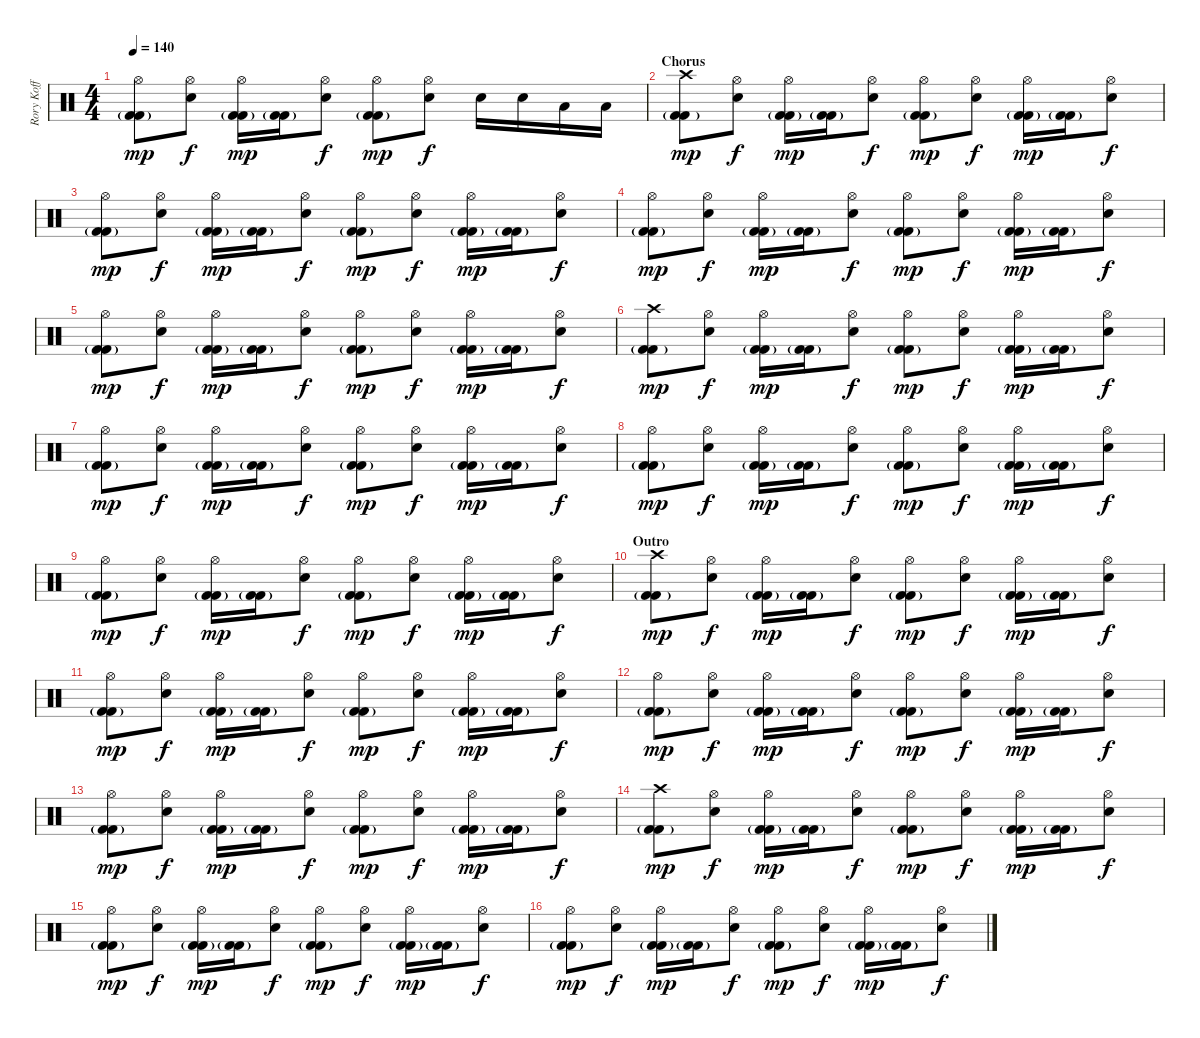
\track ("Rory Koff" "Rory Koff") {instrument percussion}
\staff {score}
\articulation defaults
\ts (4 4)
\tempo 140
\clef neutral
\ks c
("Hi-Hat (open)" "Kick (hit) 2"{g} "Kick (hit) 2").8{dy mp} ("Hi-Hat (open)" "Snare (hit) 2").8{dy f} ("Hi-Hat (open)" "Kick (hit) 2"{g} "Kick (hit) 2").16{dy mp} ("Kick (hit) 2"{g} "Kick (hit) 2").16 ("Hi-Hat (open)" "Snare (hit) 2").8{dy f} ("Hi-Hat (open)" "Kick (hit) 2"{g} "Kick (hit) 2").8{dy mp} ("Hi-Hat (open)" "Snare (hit) 2").8{dy f} "Snare (hit) 2".16 "Snare (hit) 2".16 "Low Tom (hit)".16 "Low Tom (hit)".16 |
\section ("" "Chorus")
("Crash high (hit)" "Kick (hit) 2"{g} "Kick (hit) 2").8{dy mp} ("Hi-Hat (open)" "Snare (hit) 2").8{dy f} ("Hi-Hat (open)" "Kick (hit) 2"{g} "Kick (hit) 2").16{dy mp} ("Kick (hit) 2"{g} "Kick (hit) 2").16 ("Hi-Hat (open)" "Snare (hit) 2").8{dy f} ("Hi-Hat (open)" "Kick (hit) 2"{g} "Kick (hit) 2").8{dy mp} ("Hi-Hat (open)" "Snare (hit) 2").8{dy f} ("Hi-Hat (open)" "Kick (hit) 2"{g} "Kick (hit) 2").16{dy mp} ("Kick (hit) 2"{g} "Kick (hit) 2").16 ("Hi-Hat (open)" "Snare (hit) 2").8{dy f} |
("Hi-Hat (open)" "Kick (hit) 2"{g} "Kick (hit) 2").8{dy mp} ("Hi-Hat (open)" "Snare (hit) 2").8{dy f} ("Hi-Hat (open)" "Kick (hit) 2"{g} "Kick (hit) 2").16{dy mp} ("Kick (hit) 2"{g} "Kick (hit) 2").16 ("Hi-Hat (open)" "Snare (hit) 2").8{dy f} ("Hi-Hat (open)" "Kick (hit) 2"{g} "Kick (hit) 2").8{dy mp} ("Hi-Hat (open)" "Snare (hit) 2").8{dy f} ("Hi-Hat (open)" "Kick (hit) 2"{g} "Kick (hit) 2").16{dy mp} ("Kick (hit) 2"{g} "Kick (hit) 2").16 ("Hi-Hat (open)" "Snare (hit) 2").8{dy f} |
("Hi-Hat (open)" "Kick (hit) 2"{g} "Kick (hit) 2").8{dy mp} ("Hi-Hat (open)" "Snare (hit) 2").8{dy f} ("Hi-Hat (open)" "Kick (hit) 2"{g} "Kick (hit) 2").16{dy mp} ("Kick (hit) 2"{g} "Kick (hit) 2").16 ("Hi-Hat (open)" "Snare (hit) 2").8{dy f} ("Hi-Hat (open)" "Kick (hit) 2"{g} "Kick (hit) 2").8{dy mp} ("Hi-Hat (open)" "Snare (hit) 2").8{dy f} ("Hi-Hat (open)" "Kick (hit) 2"{g} "Kick (hit) 2").16{dy mp} ("Kick (hit) 2"{g} "Kick (hit) 2").16 ("Hi-Hat (open)" "Snare (hit) 2").8{dy f} |
("Hi-Hat (open)" "Kick (hit) 2"{g} "Kick (hit) 2").8{dy mp} ("Hi-Hat (open)" "Snare (hit) 2").8{dy f} ("Hi-Hat (open)" "Kick (hit) 2"{g} "Kick (hit) 2").16{dy mp} ("Kick (hit) 2"{g} "Kick (hit) 2").16 ("Hi-Hat (open)" "Snare (hit) 2").8{dy f} ("Hi-Hat (open)" "Kick (hit) 2"{g} "Kick (hit) 2").8{dy mp} ("Hi-Hat (open)" "Snare (hit) 2").8{dy f} ("Hi-Hat (open)" "Kick (hit) 2"{g} "Kick (hit) 2").16{dy mp} ("Kick (hit) 2"{g} "Kick (hit) 2").16 ("Hi-Hat (open)" "Snare (hit) 2").8{dy f} |
("Crash high (hit)" "Kick (hit) 2"{g} "Kick (hit) 2").8{dy mp} ("Hi-Hat (open)" "Snare (hit) 2").8{dy f} ("Hi-Hat (open)" "Kick (hit) 2"{g} "Kick (hit) 2").16{dy mp} ("Kick (hit) 2"{g} "Kick (hit) 2").16 ("Hi-Hat (open)" "Snare (hit) 2").8{dy f} ("Hi-Hat (open)" "Kick (hit) 2"{g} "Kick (hit) 2").8{dy mp} ("Hi-Hat (open)" "Snare (hit) 2").8{dy f} ("Hi-Hat (open)" "Kick (hit) 2"{g} "Kick (hit) 2").16{dy mp} ("Kick (hit) 2"{g} "Kick (hit) 2").16 ("Hi-Hat (open)" "Snare (hit) 2").8{dy f} |
("Hi-Hat (open)" "Kick (hit) 2"{g} "Kick (hit) 2").8{dy mp} ("Hi-Hat (open)" "Snare (hit) 2").8{dy f} ("Hi-Hat (open)" "Kick (hit) 2"{g} "Kick (hit) 2").16{dy mp} ("Kick (hit) 2"{g} "Kick (hit) 2").16 ("Hi-Hat (open)" "Snare (hit) 2").8{dy f} ("Hi-Hat (open)" "Kick (hit) 2"{g} "Kick (hit) 2").8{dy mp} ("Hi-Hat (open)" "Snare (hit) 2").8{dy f} ("Hi-Hat (open)" "Kick (hit) 2"{g} "Kick (hit) 2").16{dy mp} ("Kick (hit) 2"{g} "Kick (hit) 2").16 ("Hi-Hat (open)" "Snare (hit) 2").8{dy f} |
("Hi-Hat (open)" "Kick (hit) 2"{g} "Kick (hit) 2").8{dy mp} ("Hi-Hat (open)" "Snare (hit) 2").8{dy f} ("Hi-Hat (open)" "Kick (hit) 2"{g} "Kick (hit) 2").16{dy mp} ("Kick (hit) 2"{g} "Kick (hit) 2").16 ("Hi-Hat (open)" "Snare (hit) 2").8{dy f} ("Hi-Hat (open)" "Kick (hit) 2"{g} "Kick (hit) 2").8{dy mp} ("Hi-Hat (open)" "Snare (hit) 2").8{dy f} ("Hi-Hat (open)" "Kick (hit) 2"{g} "Kick (hit) 2").16{dy mp} ("Kick (hit) 2"{g} "Kick (hit) 2").16 ("Hi-Hat (open)" "Snare (hit) 2").8{dy f} |
("Hi-Hat (open)" "Kick (hit) 2"{g} "Kick (hit) 2").8{dy mp} ("Hi-Hat (open)" "Snare (hit) 2").8{dy f} ("Hi-Hat (open)" "Kick (hit) 2"{g} "Kick (hit) 2").16{dy mp} ("Kick (hit) 2"{g} "Kick (hit) 2").16 ("Hi-Hat (open)" "Snare (hit) 2").8{dy f} ("Hi-Hat (open)" "Kick (hit) 2"{g} "Kick (hit) 2").8{dy mp} ("Hi-Hat (open)" "Snare (hit) 2").8{dy f} ("Hi-Hat (open)" "Kick (hit) 2"{g} "Kick (hit) 2").16{dy mp} ("Kick (hit) 2"{g} "Kick (hit) 2").16 ("Hi-Hat (open)" "Snare (hit) 2").8{dy f} |
\section ("" "Outro")
("Crash high (hit)" "Kick (hit) 2"{g} "Kick (hit) 2").8{dy mp} ("Hi-Hat (open)" "Snare (hit) 2").8{dy f} ("Hi-Hat (open)" "Kick (hit) 2"{g} "Kick (hit) 2").16{dy mp} ("Kick (hit) 2"{g} "Kick (hit) 2").16 ("Hi-Hat (open)" "Snare (hit) 2").8{dy f} ("Hi-Hat (open)" "Kick (hit) 2"{g} "Kick (hit) 2").8{dy mp} ("Hi-Hat (open)" "Snare (hit) 2").8{dy f} ("Hi-Hat (open)" "Kick (hit) 2"{g} "Kick (hit) 2").16{dy mp} ("Kick (hit) 2"{g} "Kick (hit) 2").16 ("Hi-Hat (open)" "Snare (hit) 2").8{dy f} |
("Hi-Hat (open)" "Kick (hit) 2"{g} "Kick (hit) 2").8{dy mp} ("Hi-Hat (open)" "Snare (hit) 2").8{dy f} ("Hi-Hat (open)" "Kick (hit) 2"{g} "Kick (hit) 2").16{dy mp} ("Kick (hit) 2"{g} "Kick (hit) 2").16 ("Hi-Hat (open)" "Snare (hit) 2").8{dy f} ("Hi-Hat (open)" "Kick (hit) 2"{g} "Kick (hit) 2").8{dy mp} ("Hi-Hat (open)" "Snare (hit) 2").8{dy f} ("Hi-Hat (open)" "Kick (hit) 2"{g} "Kick (hit) 2").16{dy mp} ("Kick (hit) 2"{g} "Kick (hit) 2").16 ("Hi-Hat (open)" "Snare (hit) 2").8{dy f} |
("Hi-Hat (open)" "Kick (hit) 2"{g} "Kick (hit) 2").8{dy mp} ("Hi-Hat (open)" "Snare (hit) 2").8{dy f} ("Hi-Hat (open)" "Kick (hit) 2"{g} "Kick (hit) 2").16{dy mp} ("Kick (hit) 2"{g} "Kick (hit) 2").16 ("Hi-Hat (open)" "Snare (hit) 2").8{dy f} ("Hi-Hat (open)" "Kick (hit) 2"{g} "Kick (hit) 2").8{dy mp} ("Hi-Hat (open)" "Snare (hit) 2").8{dy f} ("Hi-Hat (open)" "Kick (hit) 2"{g} "Kick (hit) 2").16{dy mp} ("Kick (hit) 2"{g} "Kick (hit) 2").16 ("Hi-Hat (open)" "Snare (hit) 2").8{dy f} |
("Hi-Hat (open)" "Kick (hit) 2"{g} "Kick (hit) 2").8{dy mp} ("Hi-Hat (open)" "Snare (hit) 2").8{dy f} ("Hi-Hat (open)" "Kick (hit) 2"{g} "Kick (hit) 2").16{dy mp} ("Kick (hit) 2"{g} "Kick (hit) 2").16 ("Hi-Hat (open)" "Snare (hit) 2").8{dy f} ("Hi-Hat (open)" "Kick (hit) 2"{g} "Kick (hit) 2").8{dy mp} ("Hi-Hat (open)" "Snare (hit) 2").8{dy f} ("Hi-Hat (open)" "Kick (hit) 2"{g} "Kick (hit) 2").16{dy mp} ("Kick (hit) 2"{g} "Kick (hit) 2").16 ("Hi-Hat (open)" "Snare (hit) 2").8{dy f} |
("Crash high (hit)" "Kick (hit) 2"{g} "Kick (hit) 2").8{dy mp} ("Hi-Hat (open)" "Snare (hit) 2").8{dy f} ("Hi-Hat (open)" "Kick (hit) 2"{g} "Kick (hit) 2").16{dy mp} ("Kick (hit) 2"{g} "Kick (hit) 2").16 ("Hi-Hat (open)" "Snare (hit) 2").8{dy f} ("Hi-Hat (open)" "Kick (hit) 2"{g} "Kick (hit) 2").8{dy mp} ("Hi-Hat (open)" "Snare (hit) 2").8{dy f} ("Hi-Hat (open)" "Kick (hit) 2"{g} "Kick (hit) 2").16{dy mp} ("Kick (hit) 2"{g} "Kick (hit) 2").16 ("Hi-Hat (open)" "Snare (hit) 2").8{dy f} |
("Hi-Hat (open)" "Kick (hit) 2"{g} "Kick (hit) 2").8{dy mp} ("Hi-Hat (open)" "Snare (hit) 2").8{dy f} ("Hi-Hat (open)" "Kick (hit) 2"{g} "Kick (hit) 2").16{dy mp} ("Kick (hit) 2"{g} "Kick (hit) 2").16 ("Hi-Hat (open)" "Snare (hit) 2").8{dy f} ("Hi-Hat (open)" "Kick (hit) 2"{g} "Kick (hit) 2").8{dy mp} ("Hi-Hat (open)" "Snare (hit) 2").8{dy f} ("Hi-Hat (open)" "Kick (hit) 2"{g} "Kick (hit) 2").16{dy mp} ("Kick (hit) 2"{g} "Kick (hit) 2").16 ("Hi-Hat (open)" "Snare (hit) 2").8{dy f} |
("Hi-Hat (open)" "Kick (hit) 2"{g} "Kick (hit) 2").8{dy mp} ("Hi-Hat (open)" "Snare (hit) 2").8{dy f} ("Hi-Hat (open)" "Kick (hit) 2"{g} "Kick (hit) 2").16{dy mp} ("Kick (hit) 2"{g} "Kick (hit) 2").16 ("Hi-Hat (open)" "Snare (hit) 2").8{dy f} ("Hi-Hat (open)" "Kick (hit) 2"{g} "Kick (hit) 2").8{dy mp} ("Hi-Hat (open)" "Snare (hit) 2").8{dy f} ("Hi-Hat (open)" "Kick (hit) 2"{g} "Kick (hit) 2").16{dy mp} ("Kick (hit) 2"{g} "Kick (hit) 2").16 ("Hi-Hat (open)" "Snare (hit) 2").8{dy f}
